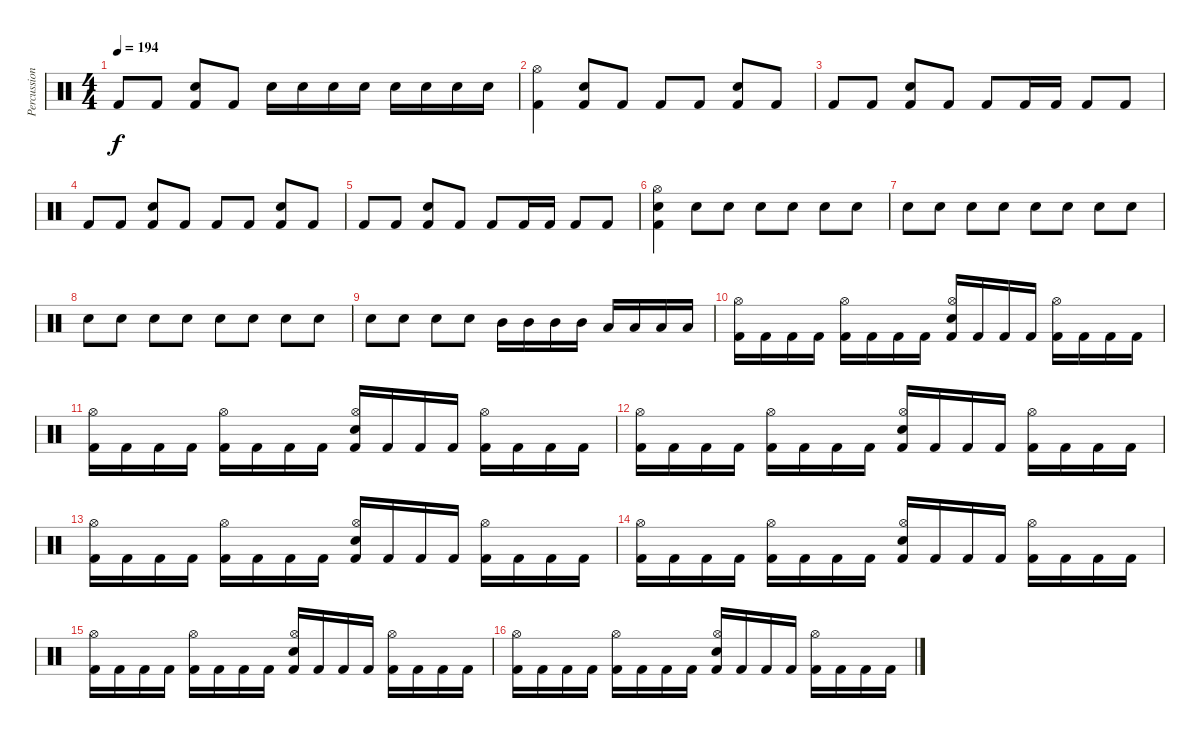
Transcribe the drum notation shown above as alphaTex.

\track ("Percussions" "Percussion") {instrument percussion}
\staff {score}
\articulation defaults
\ts (4 4)
\tempo 194
\clef neutral
\ks c "Kick (hit) 2".8{dy f} "Kick (hit) 2".8
("Snare (hit) 2" "Kick (hit) 2").8 "Kick (hit) 2".8 "Snare (hit) 2".16 "Snare (hit) 2".16 "Snare (hit) 2".16 "Snare (hit) 2".16 "Snare (hit) 2".16 "Snare (hit) 2".16 "Snare (hit) 2".16 "Snare (hit) 2".16 |
("Hi-Hat (open)" "Kick (hit) 2").4 ("Snare (hit) 2" "Kick (hit) 2").8 "Kick (hit) 2".8 "Kick (hit) 2".8 "Kick (hit) 2".8 ("Snare (hit) 2" "Kick (hit) 2").8 "Kick (hit) 2".8 |
"Kick (hit) 2".8 "Kick (hit) 2".8 ("Snare (hit) 2" "Kick (hit) 2").8 "Kick (hit) 2".8 "Kick (hit) 2".8 "Kick (hit) 2".16 "Kick (hit) 2".16 "Kick (hit) 2".8 "Kick (hit) 2".8 |
"Kick (hit) 2".8 "Kick (hit) 2".8 ("Snare (hit) 2" "Kick (hit) 2").8 "Kick (hit) 2".8 "Kick (hit) 2".8 "Kick (hit) 2".8 ("Snare (hit) 2" "Kick (hit) 2").8 "Kick (hit) 2".8 |
"Kick (hit) 2".8 "Kick (hit) 2".8 ("Snare (hit) 2" "Kick (hit) 2").8 "Kick (hit) 2".8 "Kick (hit) 2".8 "Kick (hit) 2".16 "Kick (hit) 2".16 "Kick (hit) 2".8 "Kick (hit) 2".8 |
("Hi-Hat (open)" "Snare (hit) 2" "Kick (hit) 2").4 "Snare (hit) 2".8 "Snare (hit) 2".8 "Snare (hit) 2".8 "Snare (hit) 2".8 "Snare (hit) 2".8 "Snare (hit) 2".8 |
"Snare (hit) 2".8 "Snare (hit) 2".8 "Snare (hit) 2".8 "Snare (hit) 2".8 "Snare (hit) 2".8 "Snare (hit) 2".8 "Snare (hit) 2".8 "Snare (hit) 2".8 |
"Snare (hit) 2".8 "Snare (hit) 2".8 "Snare (hit) 2".8 "Snare (hit) 2".8 "Snare (hit) 2".8 "Snare (hit) 2".8 "Snare (hit) 2".8 "Snare (hit) 2".8 |
"Snare (hit) 2".8 "Snare (hit) 2".8 "Snare (hit) 2".8 "Snare (hit) 2".8 "Mid Tom (hit)".16 "Mid Tom (hit)".16 "Mid Tom (hit)".16 "Mid Tom (hit)".16 "Low Tom (hit)".16 "Low Tom (hit)".16 "Low Tom (hit)".16 "Low Tom (hit)".16 |
("Hi-Hat (open)" "Kick (hit) 2").16 "Kick (hit) 2".16 "Kick (hit) 2".16 "Kick (hit) 2".16 ("Hi-Hat (open)" "Kick (hit) 2").16 "Kick (hit) 2".16 "Kick (hit) 2".16 "Kick (hit) 2".16 ("Hi-Hat (open)" "Electric Snare (hit)" "Kick (hit) 2").16 "Kick (hit) 2".16 "Kick (hit) 2".16 "Kick (hit) 2".16 ("Hi-Hat (open)" "Kick (hit) 2").16 "Kick (hit) 2".16 "Kick (hit) 2".16 "Kick (hit) 2".16 |
("Hi-Hat (open)" "Kick (hit) 2").16 "Kick (hit) 2".16 "Kick (hit) 2".16 "Kick (hit) 2".16 ("Hi-Hat (open)" "Kick (hit) 2").16 "Kick (hit) 2".16 "Kick (hit) 2".16 "Kick (hit) 2".16 ("Hi-Hat (open)" "Electric Snare (hit)" "Kick (hit) 2").16 "Kick (hit) 2".16 "Kick (hit) 2".16 "Kick (hit) 2".16 ("Hi-Hat (open)" "Kick (hit) 2").16 "Kick (hit) 2".16 "Kick (hit) 2".16 "Kick (hit) 2".16 |
("Hi-Hat (open)" "Kick (hit) 2").16 "Kick (hit) 2".16 "Kick (hit) 2".16 "Kick (hit) 2".16 ("Hi-Hat (open)" "Kick (hit) 2").16 "Kick (hit) 2".16 "Kick (hit) 2".16 "Kick (hit) 2".16 ("Hi-Hat (open)" "Electric Snare (hit)" "Kick (hit) 2").16 "Kick (hit) 2".16 "Kick (hit) 2".16 "Kick (hit) 2".16 ("Hi-Hat (open)" "Kick (hit) 2").16 "Kick (hit) 2".16 "Kick (hit) 2".16 "Kick (hit) 2".16 |
("Hi-Hat (open)" "Kick (hit) 2").16 "Kick (hit) 2".16 "Kick (hit) 2".16 "Kick (hit) 2".16 ("Hi-Hat (open)" "Kick (hit) 2").16 "Kick (hit) 2".16 "Kick (hit) 2".16 "Kick (hit) 2".16 ("Hi-Hat (open)" "Electric Snare (hit)" "Kick (hit) 2").16 "Kick (hit) 2".16 "Kick (hit) 2".16 "Kick (hit) 2".16 ("Hi-Hat (open)" "Kick (hit) 2").16 "Kick (hit) 2".16 "Kick (hit) 2".16 "Kick (hit) 2".16 |
("Hi-Hat (open)" "Kick (hit) 2").16 "Kick (hit) 2".16 "Kick (hit) 2".16 "Kick (hit) 2".16 ("Hi-Hat (open)" "Kick (hit) 2").16 "Kick (hit) 2".16 "Kick (hit) 2".16 "Kick (hit) 2".16 ("Hi-Hat (open)" "Electric Snare (hit)" "Kick (hit) 2").16 "Kick (hit) 2".16 "Kick (hit) 2".16 "Kick (hit) 2".16 ("Hi-Hat (open)" "Kick (hit) 2").16 "Kick (hit) 2".16 "Kick (hit) 2".16 "Kick (hit) 2".16 |
("Hi-Hat (open)" "Kick (hit) 2").16 "Kick (hit) 2".16 "Kick (hit) 2".16 "Kick (hit) 2".16 ("Hi-Hat (open)" "Kick (hit) 2").16 "Kick (hit) 2".16 "Kick (hit) 2".16 "Kick (hit) 2".16 ("Hi-Hat (open)" "Electric Snare (hit)" "Kick (hit) 2").16 "Kick (hit) 2".16 "Kick (hit) 2".16 "Kick (hit) 2".16 ("Hi-Hat (open)" "Kick (hit) 2").16 "Kick (hit) 2".16 "Kick (hit) 2".16 "Kick (hit) 2".16 |
("Hi-Hat (open)" "Kick (hit) 2").16 "Kick (hit) 2".16 "Kick (hit) 2".16 "Kick (hit) 2".16 ("Hi-Hat (open)" "Kick (hit) 2").16 "Kick (hit) 2".16 "Kick (hit) 2".16 "Kick (hit) 2".16 ("Hi-Hat (open)" "Electric Snare (hit)" "Kick (hit) 2").16 "Kick (hit) 2".16 "Kick (hit) 2".16 "Kick (hit) 2".16 ("Hi-Hat (open)" "Kick (hit) 2").16 "Kick (hit) 2".16 "Kick (hit) 2".16 "Kick (hit) 2".16
